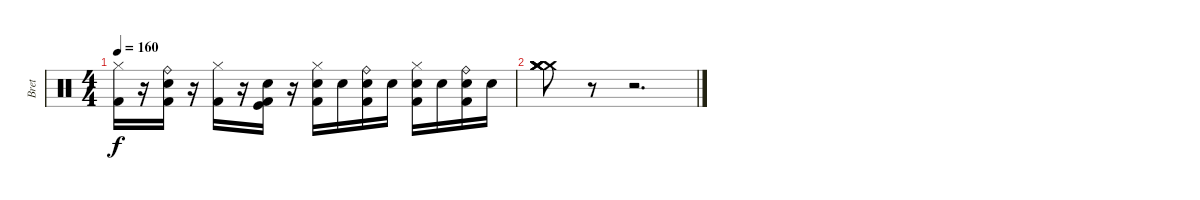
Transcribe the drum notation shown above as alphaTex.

\track ("Bret" "Bret") {instrument percussion}
\staff {score}
\articulation defaults
\ts (4 4)
\tempo 160
\clef neutral
\ks c
("Hi-Hat (closed)" "Kick (hit) 2").16{dy f} r.16 ("Ride (bell)" "Electric Snare (hit)" "Kick (hit) 2").16 r.16 ("Hi-Hat (closed)" "Kick (hit) 2").16 r.16 ("Kick (hit)" "Electric Snare (hit)" "Kick (hit) 2").16 r.16 ("Hi-Hat (closed)" "Electric Snare (hit)" "Kick (hit) 2").16 "Electric Snare (hit)".16 ("Ride (bell)" "Electric Snare (hit)" "Kick (hit) 2").16 "Electric Snare (hit)".16 ("Hi-Hat (closed)" "Electric Snare (hit)" "Kick (hit) 2").16 "Electric Snare (hit)".16 ("Ride (bell)" "Electric Snare (hit)" "Kick (hit) 2").16 "Electric Snare (hit)".16 |
("Crash medium (hit)" "Crash medium (hit)" "Crash medium (hit)" "Crash medium (hit)" "Crash medium (hit)" "Crash medium (hit)").8 r.8 r.2{d}
